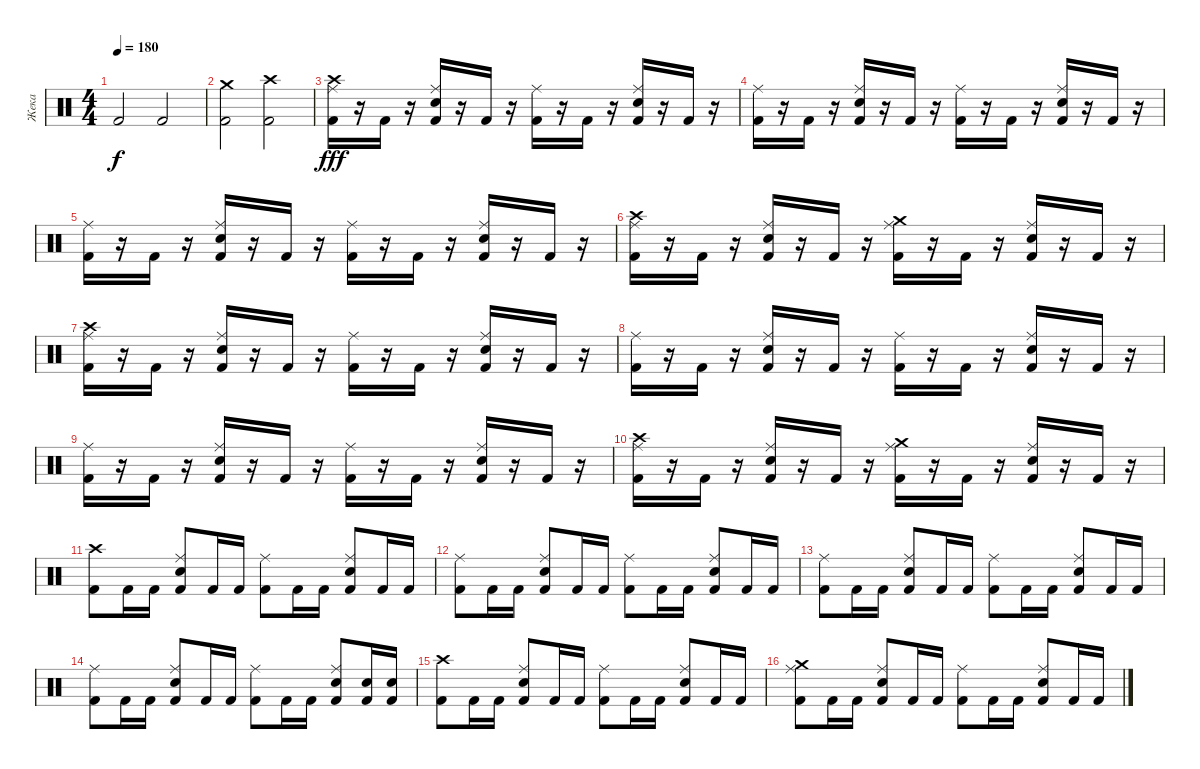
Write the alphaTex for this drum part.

\track ("Жека" "Жека") {instrument percussion}
\staff {score}
\articulation defaults
\ts (4 4)
\tempo 180
\clef neutral
\ks c "Kick (hit) 2".2{dy f} "Kick (hit) 2".2
|
("Crash medium (hit)" "Kick (hit) 2").2 ("Crash high (hit)" "Kick (hit) 2").2 |
("Kick (hit) 2" "Ride (middle)" "Crash high (hit)").16{dy fff} r.16 "Kick (hit) 2".16 r.16 ("Kick (hit) 2" "Snare (hit) 2" "Ride (middle)").16 r.16 "Kick (hit) 2".16 r.16 ("Kick (hit) 2" "Ride (middle)").16 r.16 "Kick (hit) 2".16 r.16 ("Kick (hit) 2" "Snare (hit) 2" "Ride (middle)").16 r.16 "Kick (hit) 2".16 r.16 |
("Kick (hit) 2" "Ride (middle)").16 r.16 "Kick (hit) 2".16 r.16 ("Kick (hit) 2" "Snare (hit) 2" "Ride (middle)").16 r.16 "Kick (hit) 2".16 r.16 ("Kick (hit) 2" "Ride (middle)").16 r.16 "Kick (hit) 2".16 r.16 ("Kick (hit) 2" "Snare (hit) 2" "Ride (middle)").16 r.16 "Kick (hit) 2".16 r.16 |
("Kick (hit) 2" "Ride (middle)").16 r.16 "Kick (hit) 2".16 r.16 ("Kick (hit) 2" "Snare (hit) 2" "Ride (middle)").16 r.16 "Kick (hit) 2".16 r.16 ("Kick (hit) 2" "Ride (middle)").16 r.16 "Kick (hit) 2".16 r.16 ("Kick (hit) 2" "Snare (hit) 2" "Ride (middle)").16 r.16 "Kick (hit) 2".16 r.16 |
("Kick (hit) 2" "Ride (middle)" "Crash high (hit)").16 r.16 "Kick (hit) 2".16 r.16 ("Kick (hit) 2" "Snare (hit) 2" "Ride (middle)").16 r.16 "Kick (hit) 2".16 r.16 ("Kick (hit) 2" "Ride (middle)" "Crash medium (hit)").16 r.16 "Kick (hit) 2".16 r.16 ("Kick (hit) 2" "Snare (hit) 2" "Ride (middle)").16 r.16 "Kick (hit) 2".16 r.16 |
("Kick (hit) 2" "Ride (middle)" "Crash high (hit)").16 r.16 "Kick (hit) 2".16 r.16 ("Kick (hit) 2" "Snare (hit) 2" "Ride (middle)").16 r.16 "Kick (hit) 2".16 r.16 ("Kick (hit) 2" "Ride (middle)").16 r.16 "Kick (hit) 2".16 r.16 ("Kick (hit) 2" "Snare (hit) 2" "Ride (middle)").16 r.16 "Kick (hit) 2".16 r.16 |
("Kick (hit) 2" "Ride (middle)").16 r.16 "Kick (hit) 2".16 r.16 ("Kick (hit) 2" "Snare (hit) 2" "Ride (middle)").16 r.16 "Kick (hit) 2".16 r.16 ("Kick (hit) 2" "Ride (middle)").16 r.16 "Kick (hit) 2".16 r.16 ("Kick (hit) 2" "Snare (hit) 2" "Ride (middle)").16 r.16 "Kick (hit) 2".16 r.16 |
("Kick (hit) 2" "Ride (middle)").16 r.16 "Kick (hit) 2".16 r.16 ("Kick (hit) 2" "Snare (hit) 2" "Ride (middle)").16 r.16 "Kick (hit) 2".16 r.16 ("Kick (hit) 2" "Ride (middle)").16 r.16 "Kick (hit) 2".16 r.16 ("Kick (hit) 2" "Snare (hit) 2" "Ride (middle)").16 r.16 "Kick (hit) 2".16 r.16 |
("Kick (hit) 2" "Ride (middle)" "Crash high (hit)").16 r.16 "Kick (hit) 2".16 r.16 ("Kick (hit) 2" "Snare (hit) 2" "Ride (middle)").16 r.16 "Kick (hit) 2".16 r.16 ("Kick (hit) 2" "Ride (middle)" "Crash medium (hit)").16 r.16 "Kick (hit) 2".16 r.16 ("Kick (hit) 2" "Snare (hit) 2" "Ride (middle)").16 r.16 "Kick (hit) 2".16 r.16 |
("Kick (hit) 2" "Crash high (hit)").8 "Kick (hit) 2".16 "Kick (hit) 2".16 ("Ride (middle)" "Kick (hit) 2" "Snare (hit) 2").8 "Kick (hit) 2".16 "Kick (hit) 2".16 ("Ride (middle)" "Kick (hit) 2").8 "Kick (hit) 2".16 "Kick (hit) 2".16 ("Ride (middle)" "Kick (hit) 2" "Snare (hit) 2").8 "Kick (hit) 2".16 "Kick (hit) 2".16 |
("Ride (middle)" "Kick (hit) 2").8 "Kick (hit) 2".16 "Kick (hit) 2".16 ("Ride (middle)" "Kick (hit) 2" "Snare (hit) 2").8 "Kick (hit) 2".16 "Kick (hit) 2".16 ("Ride (middle)" "Kick (hit) 2").8 "Kick (hit) 2".16 "Kick (hit) 2".16 ("Ride (middle)" "Kick (hit) 2" "Snare (hit) 2").8 "Kick (hit) 2".16 "Kick (hit) 2".16 |
("Ride (middle)" "Kick (hit) 2").8 "Kick (hit) 2".16 "Kick (hit) 2".16 ("Ride (middle)" "Kick (hit) 2" "Snare (hit) 2").8 "Kick (hit) 2".16 "Kick (hit) 2".16 ("Ride (middle)" "Kick (hit) 2").8 "Kick (hit) 2".16 "Kick (hit) 2".16 ("Ride (middle)" "Kick (hit) 2" "Snare (hit) 2").8 "Kick (hit) 2".16 "Kick (hit) 2".16 |
("Ride (middle)" "Kick (hit) 2").8 "Kick (hit) 2".16 "Kick (hit) 2".16 ("Ride (middle)" "Kick (hit) 2" "Snare (hit) 2").8 "Kick (hit) 2".16 "Kick (hit) 2".16 ("Ride (middle)" "Kick (hit) 2").8 "Kick (hit) 2".16 "Kick (hit) 2".16 ("Ride (middle)" "Kick (hit) 2" "Snare (hit) 2").8 ("Kick (hit) 2" "Snare (hit) 2").16 ("Kick (hit) 2" "Snare (hit) 2").16 |
("Kick (hit) 2" "Crash high (hit)").8 "Kick (hit) 2".16 "Kick (hit) 2".16 ("Ride (middle)" "Kick (hit) 2" "Snare (hit) 2").8 "Kick (hit) 2".16 "Kick (hit) 2".16 ("Ride (middle)" "Kick (hit) 2").8 "Kick (hit) 2".16 "Kick (hit) 2".16 ("Ride (middle)" "Kick (hit) 2" "Snare (hit) 2").8 "Kick (hit) 2".16 "Kick (hit) 2".16 |
("Ride (middle)" "Kick (hit) 2" "Crash medium (hit)").8 "Kick (hit) 2".16 "Kick (hit) 2".16 ("Ride (middle)" "Kick (hit) 2" "Snare (hit) 2").8 "Kick (hit) 2".16 "Kick (hit) 2".16 ("Ride (middle)" "Kick (hit) 2").8 "Kick (hit) 2".16 "Kick (hit) 2".16 ("Ride (middle)" "Kick (hit) 2" "Snare (hit) 2").8 "Kick (hit) 2".16 "Kick (hit) 2".16
